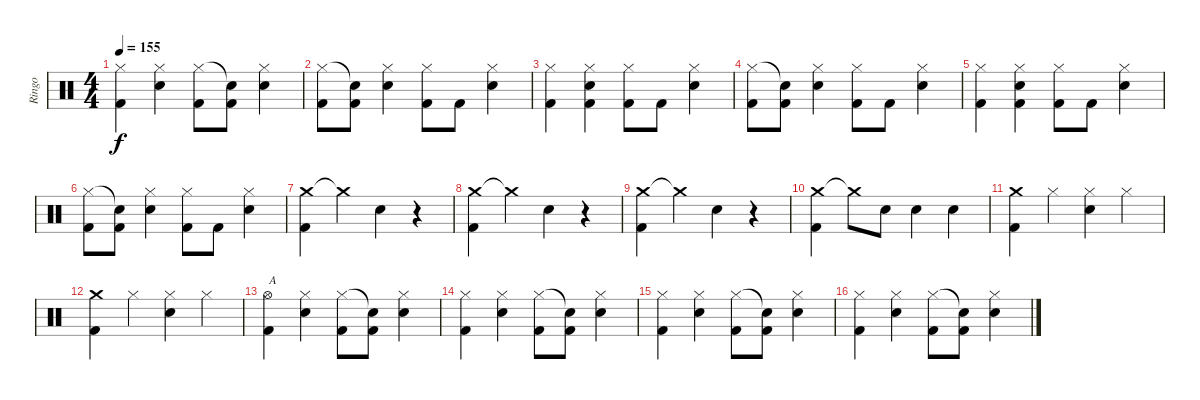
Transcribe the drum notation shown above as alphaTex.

\track ("Ringo" "Ringo") {instrument percussion}
\staff {score}
\articulation defaults
\ts (4 4)
\tempo 155
\clef neutral
\ks c
("Hi-Hat (closed)" "Kick (hit) 2").4{txt " " dy f} ("Hi-Hat (closed)" "Snare (hit) 2").4 ("Hi-Hat (closed)" "Kick (hit) 2").8 ("Snare (hit)"{t} "Kick (hit) 2").8 ("Hi-Hat (closed)" "Snare (hit) 2").4 |
("Hi-Hat (closed)" "Kick (hit) 2").8 ("Snare (hit)"{t} "Kick (hit) 2").8 ("Hi-Hat (closed)" "Snare (hit) 2").4 ("Hi-Hat (closed)" "Kick (hit) 2").8 "Kick (hit) 2".8 ("Hi-Hat (closed)" "Snare (hit) 2").4 |
("Hi-Hat (closed)" "Kick (hit) 2").4 ("Hi-Hat (closed)" "Snare (hit) 2" "Kick (hit) 2").4 ("Hi-Hat (closed)" "Kick (hit) 2").8 "Kick (hit) 2".8 ("Hi-Hat (closed)" "Snare (hit) 2").4 |
("Hi-Hat (closed)" "Kick (hit) 2").8 ("Snare (hit)"{t} "Kick (hit) 2").8 ("Hi-Hat (closed)" "Snare (hit) 2").4 ("Hi-Hat (closed)" "Kick (hit) 2").8 "Kick (hit) 2".8 ("Hi-Hat (closed)" "Snare (hit) 2").4 |
("Hi-Hat (closed)" "Kick (hit) 2").4 ("Hi-Hat (closed)" "Snare (hit) 2" "Kick (hit) 2").4 ("Hi-Hat (closed)" "Kick (hit) 2").8 "Kick (hit) 2".8 ("Hi-Hat (closed)" "Snare (hit) 2").4 |
("Hi-Hat (closed)" "Kick (hit) 2").8 ("Snare (hit)"{t} "Kick (hit) 2").8 ("Hi-Hat (closed)" "Snare (hit) 2").4 ("Hi-Hat (closed)" "Kick (hit) 2").8 "Kick (hit) 2".8 ("Hi-Hat (closed)" "Snare (hit) 2").4 |
("Crash medium (hit)" "Kick (hit) 2").4 "Crash medium (hit)"{t}.4 "Snare (hit) 2".4 r.4 |
("Crash medium (hit)" "Kick (hit) 2").4 "Crash medium (hit)"{t}.4 "Snare (hit) 2".4 r.4 |
("Crash medium (hit)" "Kick (hit) 2").4 "Crash medium (hit)"{t}.4 "Snare (hit) 2".4 r.4 |
("Crash medium (hit)" "Kick (hit) 2").4 "Crash medium (hit)"{t}.8 "Snare (hit) 2".8 "Snare (hit) 2".4 "Snare (hit) 2".4 |
("Crash medium (hit)" "Kick (hit) 2").4 "Hi-Hat (closed)".4 ("Hi-Hat (closed)" "Snare (hit) 2").4 "Hi-Hat (closed)".4 |
("Crash medium (hit)" "Kick (hit) 2").4 "Hi-Hat (closed)".4 ("Hi-Hat (closed)" "Snare (hit) 2").4 "Hi-Hat (closed)".4 |
("Hi-Hat (open)" "Kick (hit) 2").4{txt "A"} ("Hi-Hat (closed)" "Snare (hit) 2").4 ("Hi-Hat (closed)" "Kick (hit) 2").8 ("Snare (hit)"{t} "Kick (hit) 2").8 ("Hi-Hat (closed)" "Snare (hit) 2").4 |
("Hi-Hat (closed)" "Kick (hit) 2").4 ("Hi-Hat (closed)" "Snare (hit) 2").4 ("Hi-Hat (closed)" "Kick (hit) 2").8 ("Snare (hit)"{t} "Kick (hit) 2").8 ("Hi-Hat (closed)" "Snare (hit) 2").4 |
("Hi-Hat (closed)" "Kick (hit) 2").4 ("Hi-Hat (closed)" "Snare (hit) 2").4 ("Hi-Hat (closed)" "Kick (hit) 2").8 ("Snare (hit)"{t} "Kick (hit) 2").8 ("Hi-Hat (closed)" "Snare (hit) 2").4 |
("Hi-Hat (closed)" "Kick (hit) 2").4 ("Hi-Hat (closed)" "Snare (hit) 2").4 ("Hi-Hat (closed)" "Kick (hit) 2").8 ("Snare (hit)"{t} "Kick (hit) 2").8 ("Hi-Hat (closed)" "Snare (hit) 2").4
